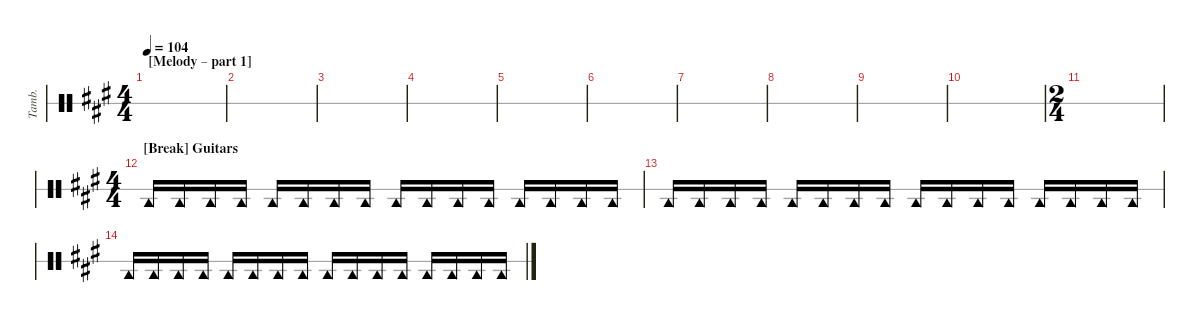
\hideDynamics
\bracketExtendMode nobrackets
\otherSystemsTrackNameOrientation horizontal
\track ("Tambourine" "Tamb.") {instrument percussion}
\staff {score 1}
\articulation defaults
\ts (4 4)
\section ("" "[Melody – part 1] ")
\tempo 104
\clef neutral
\ks a
|
|
|
|
|
|
|
|
|
|
\ts (2 4)
|
\ts (4 4)
\section ("" "[Break] Guitars")
"Tambourine (hit)"{acc forcenatural}.16{beam Up} "Tambourine (hit)"{acc forcenatural}.16{beam Up} "Tambourine (hit)"{acc forcenatural}.16{beam Up} "Tambourine (hit)"{acc forcenatural}.16{beam Up} "Tambourine (hit)"{acc forcenatural}.16{beam Up} "Tambourine (hit)"{acc forcenatural}.16{beam Up} "Tambourine (hit)"{acc forcenatural}.16{beam Up} "Tambourine (hit)"{acc forcenatural}.16{beam Up} "Tambourine (hit)"{acc forcenatural}.16{beam Up} "Tambourine (hit)"{acc forcenatural}.16{beam Up} "Tambourine (hit)"{acc forcenatural}.16{beam Up} "Tambourine (hit)"{acc forcenatural}.16{beam Up} "Tambourine (hit)"{acc forcenatural}.16{beam Up} "Tambourine (hit)"{acc forcenatural}.16{beam Up} "Tambourine (hit)"{acc forcenatural}.16{beam Up} "Tambourine (hit)"{acc forcenatural}.16{beam Up} |
"Tambourine (hit)"{acc forcenatural}.16{beam Up} "Tambourine (hit)"{acc forcenatural}.16{beam Up} "Tambourine (hit)"{acc forcenatural}.16{beam Up} "Tambourine (hit)"{acc forcenatural}.16{beam Up} "Tambourine (hit)"{acc forcenatural}.16{beam Up} "Tambourine (hit)"{acc forcenatural}.16{beam Up} "Tambourine (hit)"{acc forcenatural}.16{beam Up} "Tambourine (hit)"{acc forcenatural}.16{beam Up} "Tambourine (hit)"{acc forcenatural}.16{beam Up} "Tambourine (hit)"{acc forcenatural}.16{beam Up} "Tambourine (hit)"{acc forcenatural}.16{beam Up} "Tambourine (hit)"{acc forcenatural}.16{beam Up} "Tambourine (hit)"{acc forcenatural}.16{beam Up} "Tambourine (hit)"{acc forcenatural}.16{beam Up} "Tambourine (hit)"{acc forcenatural}.16{beam Up} "Tambourine (hit)"{acc forcenatural}.16{beam Up} |
"Tambourine (hit)"{acc forcenatural}.16{beam Up} "Tambourine (hit)"{acc forcenatural}.16{beam Up} "Tambourine (hit)"{acc forcenatural}.16{beam Up} "Tambourine (hit)"{acc forcenatural}.16{beam Up} "Tambourine (hit)"{acc forcenatural}.16{beam Up} "Tambourine (hit)"{acc forcenatural}.16{beam Up} "Tambourine (hit)"{acc forcenatural}.16{beam Up} "Tambourine (hit)"{acc forcenatural}.16{beam Up} "Tambourine (hit)"{acc forcenatural}.16{beam Up} "Tambourine (hit)"{acc forcenatural}.16{beam Up} "Tambourine (hit)"{acc forcenatural}.16{beam Up} "Tambourine (hit)"{acc forcenatural}.16{beam Up} "Tambourine (hit)"{acc forcenatural}.16{beam Up} "Tambourine (hit)"{acc forcenatural}.16{beam Up} "Tambourine (hit)"{acc forcenatural}.16{beam Up} "Tambourine (hit)"{acc forcenatural}.16{beam Up}
